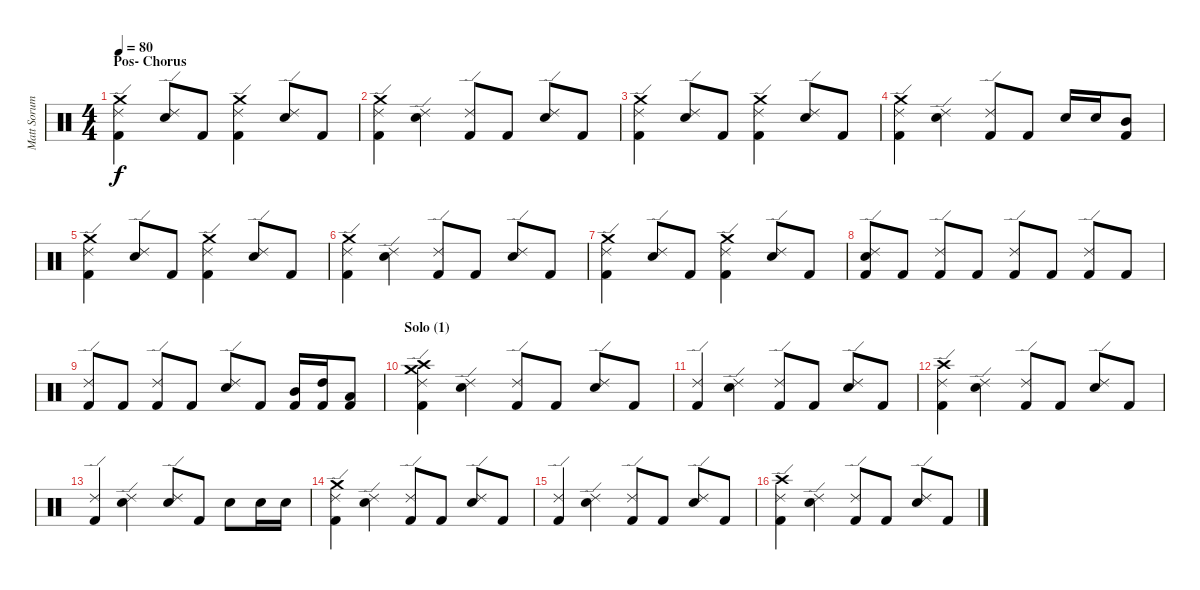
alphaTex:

\track ("Matt Sorum" "Matt Sorum") {instrument percussion}
\staff {score}
\articulation defaults
\ts (4 4)
\section ("" "Pos- Chorus")
\tempo 80
\clef neutral
\ks c
("Ride (edge) 2" "Kick (hit) 2" "Crash medium (hit)").4{dy f} ("Electric Snare (hit)" "Ride (edge) 2").8 "Kick (hit) 2".8 ("Ride (edge) 2" "Kick (hit) 2" "Crash medium (hit)").4 ("Electric Snare (hit)" "Ride (edge) 2").8 "Kick (hit) 2".8 |
("Ride (edge) 2" "Kick (hit) 2" "Crash medium (hit)").4 ("Electric Snare (hit)" "Ride (edge) 2").4 ("Ride (edge) 2" "Kick (hit) 2").8 "Kick (hit) 2".8 ("Electric Snare (hit)" "Ride (edge) 2").8 "Kick (hit) 2".8 |
("Ride (edge) 2" "Kick (hit) 2" "Crash medium (hit)").4 ("Electric Snare (hit)" "Ride (edge) 2").8 "Kick (hit) 2".8 ("Ride (edge) 2" "Kick (hit) 2" "Crash medium (hit)").4 ("Electric Snare (hit)" "Ride (edge) 2").8 "Kick (hit) 2".8 |
("Ride (edge) 2" "Kick (hit) 2" "Crash medium (hit)").4 ("Electric Snare (hit)" "Ride (edge) 2").4 ("Ride (edge) 2" "Kick (hit) 2").8 "Kick (hit) 2".8 "Electric Snare (hit)".16 "Electric Snare (hit)".16 ("Mid Tom (hit)" "Kick (hit) 2").8 |
("Ride (edge) 2" "Kick (hit) 2" "Crash medium (hit)").4 ("Electric Snare (hit)" "Ride (edge) 2").8 "Kick (hit) 2".8 ("Ride (edge) 2" "Kick (hit) 2" "Crash medium (hit)").4 ("Electric Snare (hit)" "Ride (edge) 2").8 "Kick (hit) 2".8 |
("Ride (edge) 2" "Kick (hit) 2" "Crash medium (hit)").4 ("Electric Snare (hit)" "Ride (edge) 2").4 ("Ride (edge) 2" "Kick (hit) 2").8 "Kick (hit) 2".8 ("Electric Snare (hit)" "Ride (edge) 2").8 "Kick (hit) 2".8 |
("Ride (edge) 2" "Kick (hit) 2" "Crash medium (hit)").4 ("Electric Snare (hit)" "Ride (edge) 2").8 "Kick (hit) 2".8 ("Ride (edge) 2" "Kick (hit) 2" "Crash medium (hit)").4 ("Electric Snare (hit)" "Ride (edge) 2").8 "Kick (hit) 2".8 |
("Electric Snare (hit)" "Ride (edge) 2" "Kick (hit) 2").8 "Kick (hit) 2".8 ("Ride (edge) 2" "Kick (hit) 2").8 "Kick (hit) 2".8 ("Ride (edge) 2" "Kick (hit) 2").8 "Kick (hit) 2".8 ("Ride (edge) 2" "Kick (hit) 2").8 "Kick (hit) 2".8 |
("Ride (edge) 2" "Kick (hit) 2").8 "Kick (hit) 2".8 ("Ride (edge) 2" "Kick (hit) 2").8 "Kick (hit) 2".8 ("Electric Snare (hit)" "Ride (edge) 2").8 "Kick (hit) 2".8 ("Mid Tom (hit)" "Kick (hit) 2").16 ("High Tom (hit)" "Kick (hit) 2").16 ("Low Tom (hit)" "Kick (hit) 2").8 |
\section ("" "Solo (1)")
("Ride (edge) 2" "Kick (hit) 2" "Crash high (hit)" "Crash medium (hit)").4 ("Electric Snare (hit)" "Ride (edge) 2").4 ("Ride (edge) 2" "Kick (hit) 2").8 "Kick (hit) 2".8 ("Electric Snare (hit)" "Ride (edge) 2").8 "Kick (hit) 2".8 |
("Ride (edge) 2" "Kick (hit) 2").4 ("Electric Snare (hit)" "Ride (edge) 2").4 ("Ride (edge) 2" "Kick (hit) 2").8 "Kick (hit) 2".8 ("Electric Snare (hit)" "Ride (edge) 2").8 "Kick (hit) 2".8 |
("Ride (edge) 2" "Kick (hit) 2" "Crash high (hit)").4 ("Electric Snare (hit)" "Ride (edge) 2").4 ("Ride (edge) 2" "Kick (hit) 2").8 "Kick (hit) 2".8 ("Electric Snare (hit)" "Ride (edge) 2").8 "Kick (hit) 2".8 |
("Ride (edge) 2" "Kick (hit) 2").4 ("Electric Snare (hit)" "Ride (edge) 2").4 ("Electric Snare (hit)" "Ride (edge) 2").8 "Kick (hit) 2".8 "Electric Snare (hit)".8 "Electric Snare (hit)".16 "Electric Snare (hit)".16 |
("Ride (edge) 2" "Kick (hit) 2" "Crash medium (hit)").4 ("Electric Snare (hit)" "Ride (edge) 2").4 ("Ride (edge) 2" "Kick (hit) 2").8 "Kick (hit) 2".8 ("Electric Snare (hit)" "Ride (edge) 2").8 "Kick (hit) 2".8 |
("Ride (edge) 2" "Kick (hit) 2").4 ("Electric Snare (hit)" "Ride (edge) 2").4 ("Ride (edge) 2" "Kick (hit) 2").8 "Kick (hit) 2".8 ("Electric Snare (hit)" "Ride (edge) 2").8 "Kick (hit) 2".8 |
("Ride (edge) 2" "Kick (hit) 2" "Crash high (hit)").4 ("Electric Snare (hit)" "Ride (edge) 2").4 ("Ride (edge) 2" "Kick (hit) 2").8 "Kick (hit) 2".8 ("Electric Snare (hit)" "Ride (edge) 2").8 "Kick (hit) 2".8
